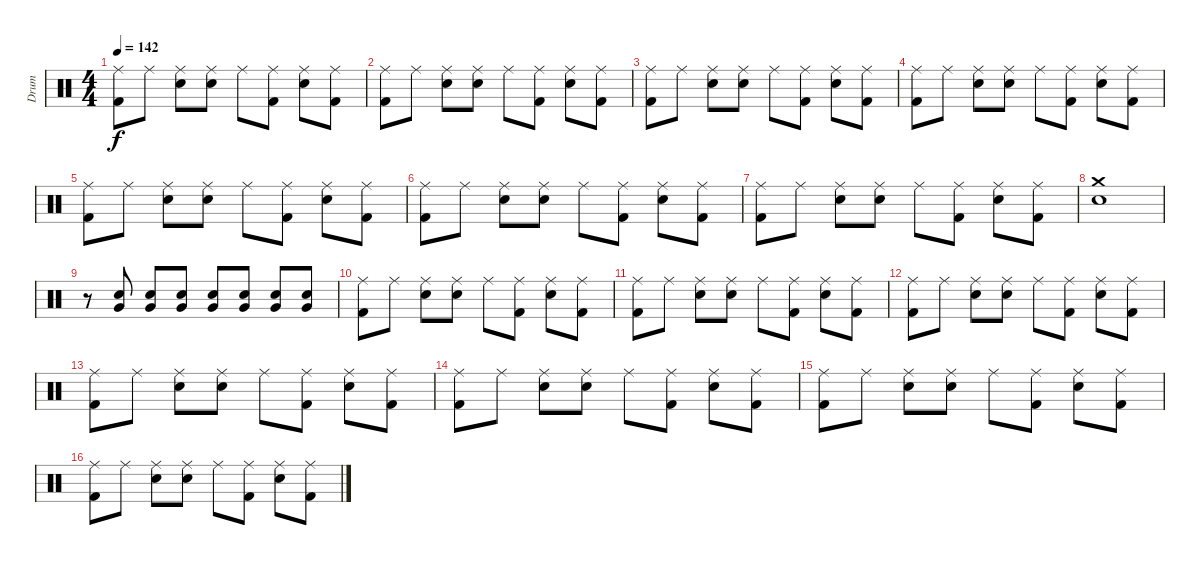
\track ("Drum" "Drum") {instrument percussion}
\staff {score}
\articulation defaults
\ts (4 4)
\tempo 142
\clef neutral
\ks c
("Kick (hit) 2" "Ride (middle)").8{dy f} "Ride (middle)".8 ("Electric Snare (hit)" "Ride (middle)").8 ("Electric Snare (hit)" "Ride (middle)").8 "Ride (middle)".8 ("Ride (middle)" "Kick (hit) 2").8 ("Ride (middle)" "Electric Snare (hit)").8 ("Ride (middle)" "Kick (hit) 2").8 |
("Kick (hit) 2" "Ride (middle)").8 "Ride (middle)".8 ("Electric Snare (hit)" "Ride (middle)").8 ("Electric Snare (hit)" "Ride (middle)").8 "Ride (middle)".8 ("Ride (middle)" "Kick (hit) 2").8 ("Ride (middle)" "Electric Snare (hit)").8 ("Ride (middle)" "Kick (hit) 2").8 |
("Kick (hit) 2" "Ride (middle)").8 "Ride (middle)".8 ("Electric Snare (hit)" "Ride (middle)").8 ("Electric Snare (hit)" "Ride (middle)").8 "Ride (middle)".8 ("Ride (middle)" "Kick (hit) 2").8 ("Ride (middle)" "Electric Snare (hit)").8 ("Ride (middle)" "Kick (hit) 2").8 |
("Kick (hit) 2" "Ride (middle)").8 "Ride (middle)".8 ("Electric Snare (hit)" "Ride (middle)").8 ("Electric Snare (hit)" "Ride (middle)").8 "Ride (middle)".8 ("Ride (middle)" "Kick (hit) 2").8 ("Ride (middle)" "Electric Snare (hit)").8 ("Ride (middle)" "Kick (hit) 2").8 |
("Kick (hit) 2" "Ride (middle)").8 "Ride (middle)".8 ("Electric Snare (hit)" "Ride (middle)").8 ("Electric Snare (hit)" "Ride (middle)").8 "Ride (middle)".8 ("Ride (middle)" "Kick (hit) 2").8 ("Ride (middle)" "Electric Snare (hit)").8 ("Ride (middle)" "Kick (hit) 2").8 |
("Kick (hit) 2" "Ride (middle)").8 "Ride (middle)".8 ("Electric Snare (hit)" "Ride (middle)").8 ("Electric Snare (hit)" "Ride (middle)").8 "Ride (middle)".8 ("Ride (middle)" "Kick (hit) 2").8 ("Ride (middle)" "Electric Snare (hit)").8 ("Ride (middle)" "Kick (hit) 2").8 |
("Kick (hit) 2" "Ride (middle)").8 "Ride (middle)".8 ("Electric Snare (hit)" "Ride (middle)").8 ("Electric Snare (hit)" "Ride (middle)").8 "Ride (middle)".8 ("Ride (middle)" "Kick (hit) 2").8 ("Ride (middle)" "Electric Snare (hit)").8 ("Ride (middle)" "Kick (hit) 2").8 |
("Crash medium (hit)" "Electric Snare (hit)").1 |
r.8 ("Electric Snare (hit)" "Very Low Tom (hit)").8 ("Electric Snare (hit)" "Very Low Tom (hit)").8 ("Electric Snare (hit)" "Very Low Tom (hit)").8 ("Electric Snare (hit)" "Very Low Tom (hit)").8 ("Electric Snare (hit)" "Very Low Tom (hit)").8 ("Electric Snare (hit)" "Very Low Tom (hit)").8 ("Electric Snare (hit)" "Very Low Tom (hit)").8 |
("Kick (hit) 2" "Ride (middle)").8 "Ride (middle)".8 ("Electric Snare (hit)" "Ride (middle)").8 ("Electric Snare (hit)" "Ride (middle)").8 "Ride (middle)".8 ("Ride (middle)" "Kick (hit) 2").8 ("Ride (middle)" "Electric Snare (hit)").8 ("Ride (middle)" "Kick (hit) 2").8 |
("Kick (hit) 2" "Ride (middle)").8 "Ride (middle)".8 ("Electric Snare (hit)" "Ride (middle)").8 ("Electric Snare (hit)" "Ride (middle)").8 "Ride (middle)".8 ("Ride (middle)" "Kick (hit) 2").8 ("Ride (middle)" "Electric Snare (hit)").8 ("Ride (middle)" "Kick (hit) 2").8 |
("Kick (hit) 2" "Ride (middle)").8 "Ride (middle)".8 ("Electric Snare (hit)" "Ride (middle)").8 ("Electric Snare (hit)" "Ride (middle)").8 "Ride (middle)".8 ("Ride (middle)" "Kick (hit) 2").8 ("Ride (middle)" "Electric Snare (hit)").8 ("Ride (middle)" "Kick (hit) 2").8 |
("Kick (hit) 2" "Ride (middle)").8 "Ride (middle)".8 ("Electric Snare (hit)" "Ride (middle)").8 ("Electric Snare (hit)" "Ride (middle)").8 "Ride (middle)".8 ("Ride (middle)" "Kick (hit) 2").8 ("Ride (middle)" "Electric Snare (hit)").8 ("Ride (middle)" "Kick (hit) 2").8 |
("Kick (hit) 2" "Ride (middle)").8 "Ride (middle)".8 ("Electric Snare (hit)" "Ride (middle)").8 ("Electric Snare (hit)" "Ride (middle)").8 "Ride (middle)".8 ("Ride (middle)" "Kick (hit) 2").8 ("Ride (middle)" "Electric Snare (hit)").8 ("Ride (middle)" "Kick (hit) 2").8 |
("Kick (hit) 2" "Ride (middle)").8 "Ride (middle)".8 ("Electric Snare (hit)" "Ride (middle)").8 ("Electric Snare (hit)" "Ride (middle)").8 "Ride (middle)".8 ("Ride (middle)" "Kick (hit) 2").8 ("Ride (middle)" "Electric Snare (hit)").8 ("Ride (middle)" "Kick (hit) 2").8 |
("Kick (hit) 2" "Ride (middle)").8 "Ride (middle)".8 ("Electric Snare (hit)" "Ride (middle)").8 ("Electric Snare (hit)" "Ride (middle)").8 "Ride (middle)".8 ("Ride (middle)" "Kick (hit) 2").8 ("Ride (middle)" "Electric Snare (hit)").8 ("Ride (middle)" "Kick (hit) 2").8
